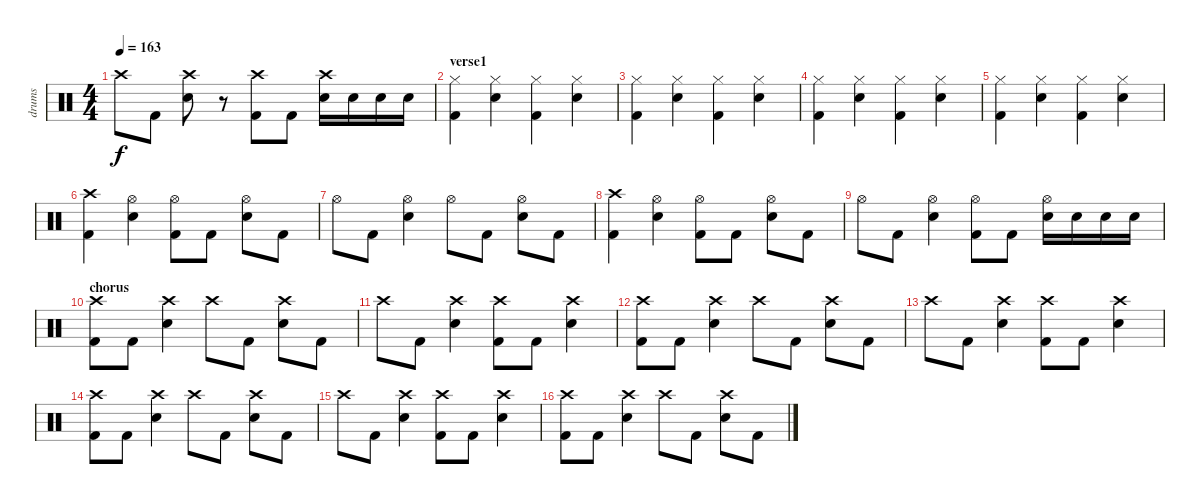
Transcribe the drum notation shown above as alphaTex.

\track ("drums" "drums") {instrument percussion}
\staff {score}
\articulation defaults
\ts (4 4)
\tempo 163
\clef neutral
\ks c "Crash high (hit)".8{dy f} "Kick (hit) 2".8
("Crash high (hit)" "Electric Snare (hit)").8 r.8 ("Crash high (hit)" "Kick (hit) 2").8 "Kick (hit) 2".8 ("Crash high (hit)" "Electric Snare (hit)").16 "Electric Snare (hit)".16 "Electric Snare (hit)".16 "Electric Snare (hit)".16 |
\section ("" "verse1")
("Hi-Hat (closed)" "Kick (hit) 2").4 ("Hi-Hat (closed)" "Electric Snare (hit)").4 ("Hi-Hat (closed)" "Kick (hit) 2").4 ("Hi-Hat (closed)" "Electric Snare (hit)").4 |
("Hi-Hat (closed)" "Kick (hit) 2").4 ("Hi-Hat (closed)" "Electric Snare (hit)").4 ("Hi-Hat (closed)" "Kick (hit) 2").4 ("Hi-Hat (closed)" "Electric Snare (hit)").4 |
("Hi-Hat (closed)" "Kick (hit) 2").4 ("Hi-Hat (closed)" "Electric Snare (hit)").4 ("Hi-Hat (closed)" "Kick (hit) 2").4 ("Hi-Hat (closed)" "Electric Snare (hit)").4 |
("Hi-Hat (closed)" "Kick (hit) 2").4 ("Hi-Hat (closed)" "Electric Snare (hit)").4 ("Hi-Hat (closed)" "Kick (hit) 2").4 ("Hi-Hat (closed)" "Electric Snare (hit)").4 |
("Crash high (hit)" "Kick (hit) 2").4 ("Hi-Hat (open)" "Electric Snare (hit)").4 ("Hi-Hat (open)" "Kick (hit) 2").8 "Kick (hit) 2".8 ("Hi-Hat (open)" "Electric Snare (hit)").8 "Kick (hit) 2".8 |
"Hi-Hat (open)".8 "Kick (hit) 2".8 ("Hi-Hat (open)" "Electric Snare (hit)").4 "Hi-Hat (open)".8 "Kick (hit) 2".8 ("Hi-Hat (open)" "Electric Snare (hit)").8 "Kick (hit) 2".8 |
("Crash high (hit)" "Kick (hit) 2").4 ("Hi-Hat (open)" "Electric Snare (hit)").4 ("Hi-Hat (open)" "Kick (hit) 2").8 "Kick (hit) 2".8 ("Hi-Hat (open)" "Electric Snare (hit)").8 "Kick (hit) 2".8 |
"Hi-Hat (open)".8 "Kick (hit) 2".8 ("Hi-Hat (open)" "Electric Snare (hit)").4 ("Hi-Hat (open)" "Kick (hit) 2").8 "Kick (hit) 2".8 ("Hi-Hat (open)" "Electric Snare (hit)").16 "Electric Snare (hit)".16 "Electric Snare (hit)".16 "Electric Snare (hit)".16 |
\section ("" "chorus")
("Crash high (hit)" "Kick (hit) 2").8 "Kick (hit) 2".8 ("Crash high (hit)" "Electric Snare (hit)").4 "Crash high (hit)".8 "Kick (hit) 2".8 ("Crash high (hit)" "Electric Snare (hit)").8 "Kick (hit) 2".8 |
"Crash high (hit)".8 "Kick (hit) 2".8 ("Crash high (hit)" "Electric Snare (hit)").4 ("Crash high (hit)" "Kick (hit) 2").8 "Kick (hit) 2".8 ("Crash high (hit)" "Electric Snare (hit)").4 |
("Crash high (hit)" "Kick (hit) 2").8 "Kick (hit) 2".8 ("Crash high (hit)" "Electric Snare (hit)").4 "Crash high (hit)".8 "Kick (hit) 2".8 ("Crash high (hit)" "Electric Snare (hit)").8 "Kick (hit) 2".8 |
"Crash high (hit)".8 "Kick (hit) 2".8 ("Crash high (hit)" "Electric Snare (hit)").4 ("Crash high (hit)" "Kick (hit) 2").8 "Kick (hit) 2".8 ("Crash high (hit)" "Electric Snare (hit)").4 |
("Crash high (hit)" "Kick (hit) 2").8 "Kick (hit) 2".8 ("Crash high (hit)" "Electric Snare (hit)").4 "Crash high (hit)".8 "Kick (hit) 2".8 ("Crash high (hit)" "Electric Snare (hit)").8 "Kick (hit) 2".8 |
"Crash high (hit)".8 "Kick (hit) 2".8 ("Crash high (hit)" "Electric Snare (hit)").4 ("Crash high (hit)" "Kick (hit) 2").8 "Kick (hit) 2".8 ("Crash high (hit)" "Electric Snare (hit)").4 |
("Crash high (hit)" "Kick (hit) 2").8 "Kick (hit) 2".8 ("Crash high (hit)" "Electric Snare (hit)").4 "Crash high (hit)".8 "Kick (hit) 2".8 ("Crash high (hit)" "Electric Snare (hit)").8 "Kick (hit) 2".8
